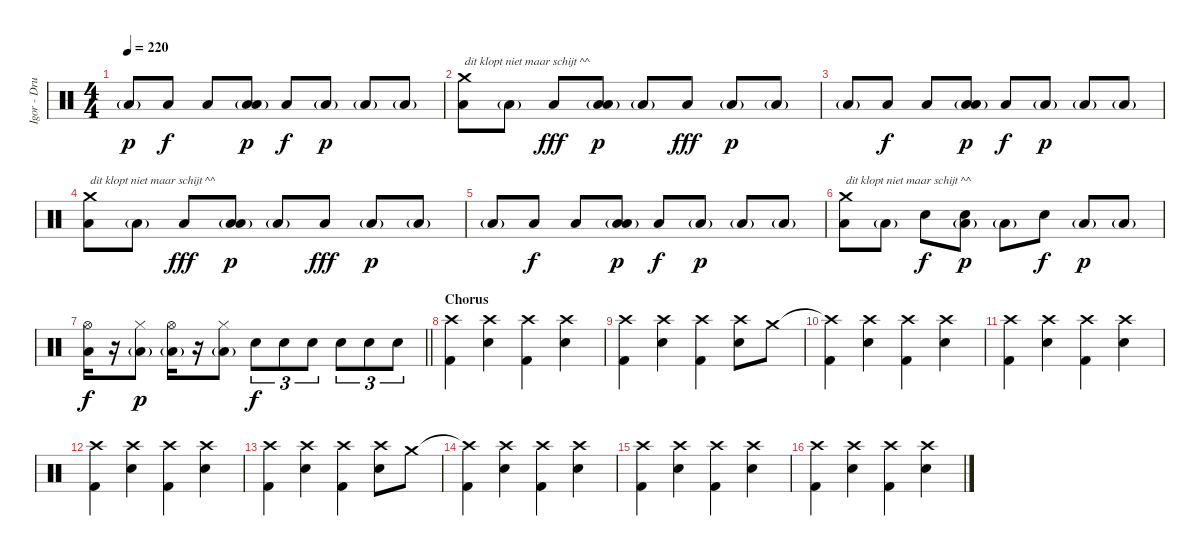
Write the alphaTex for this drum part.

\track ("Igor - Drums" "Igor - Dru") {instrument percussion}
\staff {score}
\articulation defaults
\ts (4 4)
\tempo 220
\clef neutral
\ks c "Low Floor Tom (hit)"{g}.8{dy p} "Low Floor Tom (hit)".8{dy f} "Low Floor Tom (hit)".8
("Low Tom (hit)" "Low Floor Tom (hit)"{g}).8{dy p} "Low Floor Tom (hit)".8{dy f} "Low Floor Tom (hit)"{g}.8{dy p} "Low Floor Tom (hit)"{g}.8 "Low Floor Tom (hit)"{g}.8 |
("Crash medium (hit)" "Low Floor Tom (hit)").8{txt "dit klopt niet maar schijt ^^"} "Low Floor Tom (hit)"{g}.8 "Low Floor Tom (hit)".8{dy fff} ("Low Tom (hit)" "Low Floor Tom (hit)"{g}).8{dy p} "Low Floor Tom (hit)"{g}.8 "Low Floor Tom (hit)".8{dy fff} "Low Floor Tom (hit)"{g}.8{dy p} "Low Floor Tom (hit)"{g}.8 |
"Low Floor Tom (hit)"{g}.8 "Low Floor Tom (hit)".8{dy f} "Low Floor Tom (hit)".8 ("Low Tom (hit)" "Low Floor Tom (hit)"{g}).8{dy p} "Low Floor Tom (hit)".8{dy f} "Low Floor Tom (hit)"{g}.8{dy p} "Low Floor Tom (hit)"{g}.8 "Low Floor Tom (hit)"{g}.8 |
("Crash medium (hit)" "Low Floor Tom (hit)").8{txt "dit klopt niet maar schijt ^^"} "Low Floor Tom (hit)"{g}.8 "Low Floor Tom (hit)".8{dy fff} ("Low Tom (hit)" "Low Floor Tom (hit)"{g}).8{dy p} "Low Floor Tom (hit)"{g}.8 "Low Floor Tom (hit)".8{dy fff} "Low Floor Tom (hit)"{g}.8{dy p} "Low Floor Tom (hit)"{g}.8 |
"Low Floor Tom (hit)"{g}.8 "Low Floor Tom (hit)".8{dy f} "Low Floor Tom (hit)".8 ("Low Tom (hit)" "Low Floor Tom (hit)"{g}).8{dy p} "Low Floor Tom (hit)".8{dy f} "Low Floor Tom (hit)"{g}.8{dy p} "Low Floor Tom (hit)"{g}.8 "Low Floor Tom (hit)"{g}.8 |
("Crash medium (hit)" "Low Floor Tom (hit)").8{txt "dit klopt niet maar schijt ^^"} "Low Floor Tom (hit)"{g}.8 "Snare (hit) 2".8{dy f} ("Snare (hit) 2" "Low Floor Tom (hit)"{g}).8{dy p} "Low Floor Tom (hit)"{g}.8 "Snare (hit) 2".8{dy f} "Low Floor Tom (hit)"{g}.8{dy p} "Low Floor Tom (hit)"{g}.8 |
\barLineRight lightlight
("Hi-Hat (open)" "Low Floor Tom (hit)").16{dy f} r.16 ("Hi-Hat (closed)" "Low Floor Tom (hit)"{g}).8{dy p} ("Hi-Hat (open)" "Low Floor Tom (hit)"{g}).16 r.16 ("Hi-Hat (closed)" "Low Floor Tom (hit)"{g}).8 "Snare (hit) 2".8{tu (3 2) dy f} "Snare (hit) 2".8{tu (3 2)} "Snare (hit) 2".8{tu (3 2)} "Snare (hit) 2".8{tu (3 2)} "Snare (hit) 2".8{tu (3 2)} "Snare (hit) 2".8{tu (3 2)} |
\section ("" "Chorus")
("Crash high (hit)" "Kick (hit) 2").4 ("Crash high (hit)" "Snare (hit) 2").4 ("Crash high (hit)" "Kick (hit) 2").4 ("Crash high (hit)" "Snare (hit) 2").4 |
("Crash high (hit)" "Kick (hit) 2").4 ("Crash high (hit)" "Snare (hit) 2").4 ("Crash high (hit)" "Kick (hit) 2").4 ("Crash high (hit)" "Snare (hit) 2").8 "Crash medium (hit)".8 |
("Crash high (hit)"{t} "Kick (hit) 2").4 ("Crash high (hit)" "Snare (hit) 2").4 ("Crash high (hit)" "Kick (hit) 2").4 ("Crash high (hit)" "Snare (hit) 2").4 |
("Crash high (hit)" "Kick (hit) 2").4 ("Crash high (hit)" "Snare (hit) 2").4 ("Crash high (hit)" "Kick (hit) 2").4 ("Crash high (hit)" "Snare (hit) 2").4 |
("Crash high (hit)" "Kick (hit) 2").4 ("Crash high (hit)" "Snare (hit) 2").4 ("Crash high (hit)" "Kick (hit) 2").4 ("Crash high (hit)" "Snare (hit) 2").4 |
("Crash high (hit)" "Kick (hit) 2").4 ("Crash high (hit)" "Snare (hit) 2").4 ("Crash high (hit)" "Kick (hit) 2").4 ("Crash high (hit)" "Snare (hit) 2").8 "Crash medium (hit)".8 |
("Crash high (hit)"{t} "Kick (hit) 2").4 ("Crash high (hit)" "Snare (hit) 2").4 ("Crash high (hit)" "Kick (hit) 2").4 ("Crash high (hit)" "Snare (hit) 2").4 |
("Crash high (hit)" "Kick (hit) 2").4 ("Crash high (hit)" "Snare (hit) 2").4 ("Crash high (hit)" "Kick (hit) 2").4 ("Crash high (hit)" "Snare (hit) 2").4 |
("Crash high (hit)" "Kick (hit) 2").4 ("Crash high (hit)" "Snare (hit) 2").4 ("Crash high (hit)" "Kick (hit) 2").4 ("Crash high (hit)" "Snare (hit) 2").4
